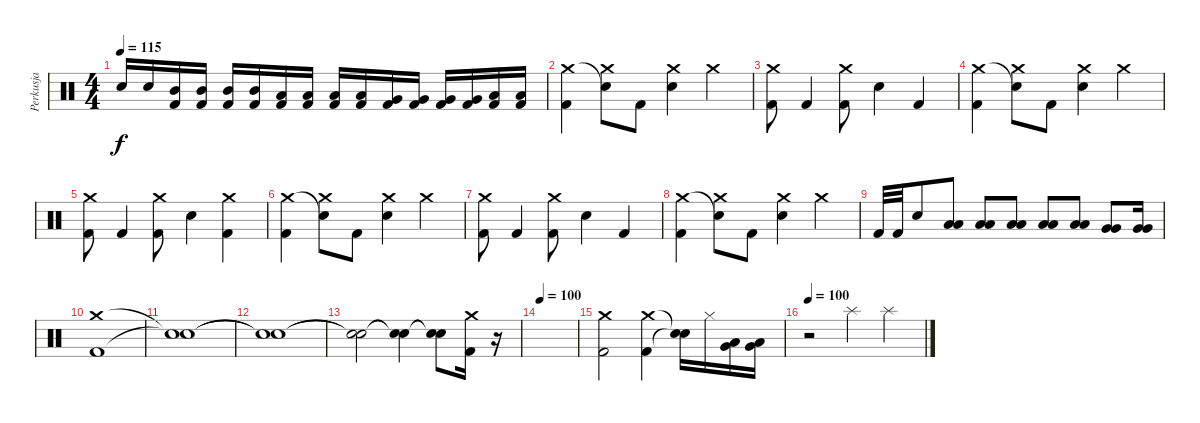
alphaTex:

\track ("Perkusja" "Perkusja") {instrument percussion}
\staff {score}
\articulation defaults
\ts (4 4)
\tempo 115
\clef neutral
\ks c "Snare (hit) 2".16{dy f} "Snare (hit) 2".16
("Mid Tom (hit)" "Kick (hit) 2").16 ("Mid Tom (hit)" "Kick (hit) 2").16 ("Mid Tom (hit)" "Kick (hit) 2").16 ("Mid Tom (hit)" "Kick (hit) 2").16 ("Low Tom (hit)" "Kick (hit) 2").16 ("Low Tom (hit)" "Kick (hit) 2").16 ("Low Tom (hit)" "Kick (hit) 2").16 ("Low Tom (hit)" "Kick (hit) 2").16 ("Very Low Tom (hit)" "Kick (hit) 2").16 ("Very Low Tom (hit)" "Kick (hit) 2").16 ("Very Low Tom (hit)" "Kick (hit) 2").16 ("Very Low Tom (hit)" "Kick (hit) 2").16 ("Low Floor Tom (hit)" "Kick (hit) 2").16 ("Low Floor Tom (hit)" "Kick (hit) 2").16 |
("Crash medium (hit)" "Kick (hit) 2").4 ("Snare (hit)"{t} "Crash medium (hit)").8 "Kick (hit) 2".8 ("Crash medium (hit)" "Snare (hit) 2").4 "Crash medium (hit)".4 |
("Crash medium (hit)" "Kick (hit) 2").8 "Kick (hit) 2".4 ("Crash medium (hit)" "Kick (hit) 2").8 "Snare (hit) 2".4 "Kick (hit) 2".4 |
("Crash medium (hit)" "Kick (hit) 2").4 ("Snare (hit)"{t} "Crash medium (hit)").8 "Kick (hit) 2".8 ("Crash medium (hit)" "Snare (hit) 2").4 "Crash medium (hit)".4 |
("Crash medium (hit)" "Kick (hit) 2").8 "Kick (hit) 2".4 ("Crash medium (hit)" "Kick (hit) 2").8 "Snare (hit) 2".4 ("Crash medium (hit)" "Kick (hit) 2").4 |
("Crash medium (hit)" "Kick (hit) 2").4 ("Snare (hit)"{t} "Crash medium (hit)").8 "Kick (hit) 2".8 ("Crash medium (hit)" "Snare (hit) 2").4 "Crash medium (hit)".4 |
("Crash medium (hit)" "Kick (hit) 2").8 "Kick (hit) 2".4 ("Crash medium (hit)" "Kick (hit) 2").8 "Snare (hit) 2".4 "Kick (hit) 2".4 |
("Crash medium (hit)" "Kick (hit) 2").4 ("Snare (hit)"{t} "Crash medium (hit)").8 "Kick (hit) 2".8 ("Crash medium (hit)" "Snare (hit) 2").4 "Crash medium (hit)".4 |
"Kick (hit) 2".32 "Kick (hit) 2".32 "Snare (hit) 2".8 ("Low Tom (hit)" "Low Tom (hit)").8 ("Low Tom (hit)" "Low Tom (hit)").8 ("Low Tom (hit)" "Low Tom (hit)").8 ("Low Tom (hit)" "Low Tom (hit)").8 ("Low Tom (hit)" "Low Tom (hit)").8 ("Very Low Tom (hit)" "Very Low Tom (hit)").8 ("Very Low Tom (hit)" "Very Low Tom (hit)").16 |
("Crash medium (hit)" "Kick (hit) 2").1 |
("Snare (hit)"{t} "Snare (hit)"{t}).1 |
("Snare (hit)"{t} "Snare (hit)"{t}).1 |
("Snare (hit)"{t} "Snare (hit)"{t}).2 ("Snare (hit)"{t} "Snare (hit)"{t}).4 ("Snare (hit)"{t} "Snare (hit)"{t}).8 ("Crash medium (hit)" "Kick (hit) 2").16 r.16 |
\tempo 100
|
("Crash medium (hit)" "Kick (hit) 2").2 ("Crash medium (hit)" "Kick (hit) 2").4 ("Snare (hit)"{t} "Snare (hit)"{t}).16 "Hi-Hat (closed)".16 ("Low Tom (hit)" "Very Low Tom (hit)").16 ("Low Tom (hit)" "Very Low Tom (hit)").16 |
\tempo 100
r.2 "Splash (hit)".4 "Splash (hit)".4
